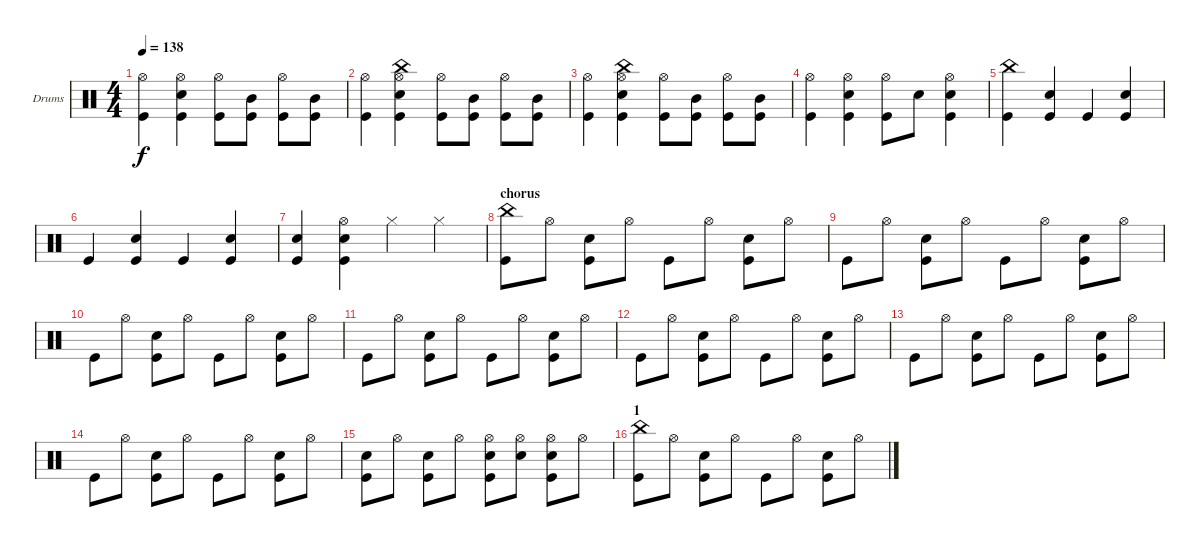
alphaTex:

\bracketExtendMode groupsimilarinstruments
\firstSystemTrackNameOrientation horizontal
\otherSystemsTrackNameOrientation horizontal
\track ("Drumkit" "Drums") {instrument percussion}
\staff {score}
\articulation defaults
\ts (4 4)
\tempo 138
\clef neutral
\ks c
("Hi-Hat (open)" "Kick (hit)").4{dy f} ("Hi-Hat (open)" "Snare (hit) 2" "Kick (hit)").4 ("Hi-Hat (open)" "Kick (hit)").8 ("Mid Tom (hit)" "Kick (hit)").8 ("Hi-Hat (open)" "Kick (hit)").8 ("Mid Tom (hit)" "Kick (hit)").8 |
("Hi-Hat (open)" "Kick (hit)").4 ("China (hit)" "Hi-Hat (open)" "Snare (hit) 2" "Kick (hit)").4 ("Hi-Hat (open)" "Kick (hit)").8 ("Mid Tom (hit)" "Kick (hit)").8 ("Hi-Hat (open)" "Kick (hit)").8 ("Mid Tom (hit)" "Kick (hit)").8 |
("Hi-Hat (open)" "Kick (hit)").4 ("China (hit)" "Hi-Hat (open)" "Snare (hit) 2" "Kick (hit)").4 ("Hi-Hat (open)" "Kick (hit)").8 ("Mid Tom (hit)" "Kick (hit)").8 ("Hi-Hat (open)" "Kick (hit)").8 ("Mid Tom (hit)" "Kick (hit)").8 |
("Hi-Hat (open)" "Kick (hit)").4 ("Hi-Hat (open)" "Snare (hit) 2" "Kick (hit)").4 ("Hi-Hat (open)" "Kick (hit)").8 "Snare (hit) 2".8 ("Hi-Hat (open)" "Snare (hit) 2" "Kick (hit)").4 |
("China (hit)" "Kick (hit)").4 ("Snare (hit) 2" "Kick (hit)").4 "Kick (hit)".4 ("Snare (hit) 2" "Kick (hit)").4 |
"Kick (hit)".4 ("Snare (hit) 2" "Kick (hit)").4 "Kick (hit)".4 ("Snare (hit) 2" "Kick (hit)").4 |
("Snare (hit) 2" "Kick (hit)").4 ("Hi-Hat (open)" "Snare (hit) 2" "Kick (hit)").4 "Hi-Hat (closed)".4 "Hi-Hat (closed)".4 |
\section ("" "chorus")
("China (hit)" "Kick (hit)").8 "Hi-Hat (open)".8 ("Snare (hit) 2" "Kick (hit)").8 "Hi-Hat (open)".8 "Kick (hit)".8 "Hi-Hat (open)".8 ("Snare (hit) 2" "Kick (hit)").8 "Hi-Hat (open)".8 |
"Kick (hit)".8 "Hi-Hat (open)".8 ("Snare (hit) 2" "Kick (hit)").8 "Hi-Hat (open)".8 "Kick (hit)".8 "Hi-Hat (open)".8 ("Snare (hit) 2" "Kick (hit)").8 "Hi-Hat (open)".8 |
"Kick (hit)".8 "Hi-Hat (open)".8 ("Snare (hit) 2" "Kick (hit)").8 "Hi-Hat (open)".8 "Kick (hit)".8 "Hi-Hat (open)".8 ("Snare (hit) 2" "Kick (hit)").8 "Hi-Hat (open)".8 |
"Kick (hit)".8 "Hi-Hat (open)".8 ("Snare (hit) 2" "Kick (hit)").8 "Hi-Hat (open)".8 "Kick (hit)".8 "Hi-Hat (open)".8 ("Snare (hit) 2" "Kick (hit)").8 "Hi-Hat (open)".8 |
"Kick (hit)".8 "Hi-Hat (open)".8 ("Snare (hit) 2" "Kick (hit)").8 "Hi-Hat (open)".8 "Kick (hit)".8 "Hi-Hat (open)".8 ("Snare (hit) 2" "Kick (hit)").8 "Hi-Hat (open)".8 |
"Kick (hit)".8 "Hi-Hat (open)".8 ("Snare (hit) 2" "Kick (hit)").8 "Hi-Hat (open)".8 "Kick (hit)".8 "Hi-Hat (open)".8 ("Snare (hit) 2" "Kick (hit)").8 "Hi-Hat (open)".8 |
"Kick (hit)".8 "Hi-Hat (open)".8 ("Snare (hit) 2" "Kick (hit)").8 "Hi-Hat (open)".8 "Kick (hit)".8 "Hi-Hat (open)".8 ("Snare (hit) 2" "Kick (hit)").8 "Hi-Hat (open)".8 |
("Snare (hit) 2" "Kick (hit)").8 "Hi-Hat (open)".8 ("Snare (hit) 2" "Kick (hit)").8 "Hi-Hat (open)".8 ("Hi-Hat (open)" "Snare (hit) 2" "Kick (hit)").8 ("Hi-Hat (open)" "Snare (hit) 2").8 ("Hi-Hat (open)" "Snare (hit) 2" "Kick (hit)").8 "Hi-Hat (open)".8 |
\section ("" "1")
("China (hit)" "Kick (hit)").8 "Hi-Hat (open)".8 ("Snare (hit) 2" "Kick (hit)").8 "Hi-Hat (open)".8 "Kick (hit)".8 "Hi-Hat (open)".8 ("Snare (hit) 2" "Kick (hit)").8 "Hi-Hat (open)".8
